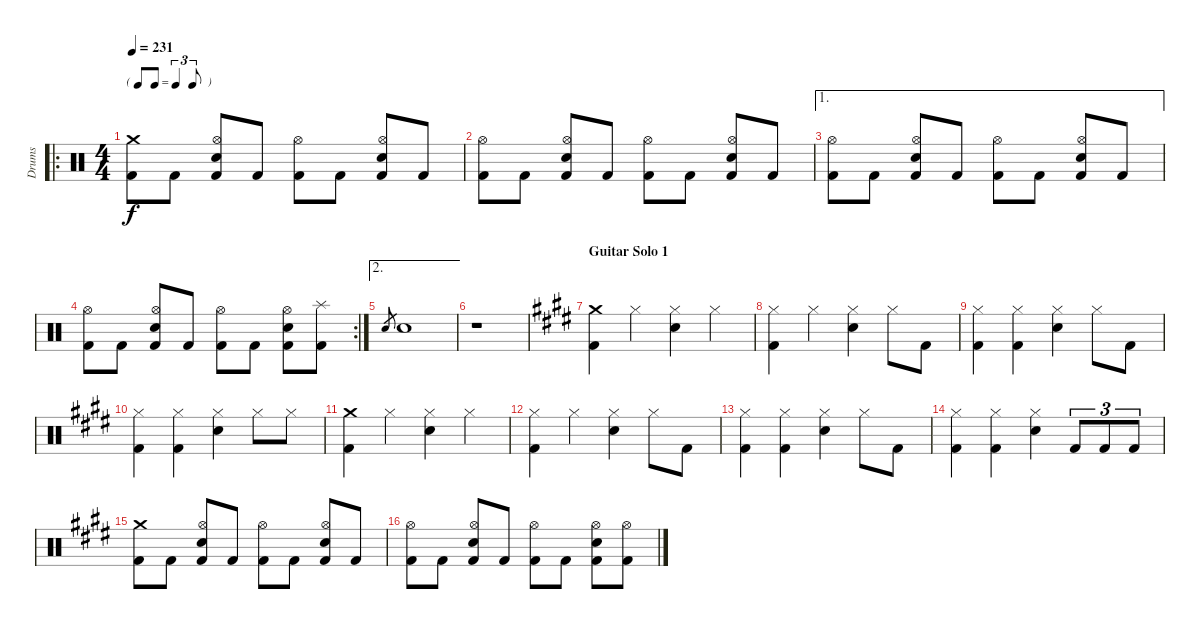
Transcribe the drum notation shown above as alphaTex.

\track ("Drums" "Drums") {instrument percussion}
\staff {score}
\articulation defaults
\ro
\ts (4 4)
\tf triplet8th
\tempo 231
\clef neutral
\ks c
("Crash medium (hit)" "Kick (hit) 2").8{dy f} "Kick (hit) 2".8 ("Hi-Hat (open)" "Electric Snare (hit)" "Kick (hit) 2").8 "Kick (hit) 2".8 ("Hi-Hat (open)" "Kick (hit) 2").8 "Kick (hit) 2".8 ("Hi-Hat (open)" "Electric Snare (hit)" "Kick (hit) 2").8 "Kick (hit) 2".8 |
("Hi-Hat (open)" "Kick (hit) 2").8 "Kick (hit) 2".8 ("Hi-Hat (open)" "Electric Snare (hit)" "Kick (hit) 2").8 "Kick (hit) 2".8 ("Hi-Hat (open)" "Kick (hit) 2").8 "Kick (hit) 2".8 ("Hi-Hat (open)" "Electric Snare (hit)" "Kick (hit) 2").8 "Kick (hit) 2".8 |
\ae 1
("Hi-Hat (open)" "Kick (hit) 2").8 "Kick (hit) 2".8 ("Hi-Hat (open)" "Electric Snare (hit)" "Kick (hit) 2").8 "Kick (hit) 2".8 ("Hi-Hat (open)" "Kick (hit) 2").8 "Kick (hit) 2".8 ("Hi-Hat (open)" "Electric Snare (hit)" "Kick (hit) 2").8 "Kick (hit) 2".8 |
\rc 2
("Hi-Hat (open)" "Kick (hit) 2").8 "Kick (hit) 2".8 ("Hi-Hat (open)" "Electric Snare (hit)" "Kick (hit) 2").8 "Kick (hit) 2".8 ("Hi-Hat (open)" "Kick (hit) 2").8 "Kick (hit) 2".8 ("Hi-Hat (open)" "Electric Snare (hit)" "Kick (hit) 2").8 ("Splash (hit)" "Kick (hit) 2").8 |
\ae 2 "Snare (hit) 2".8{gr} "Snare (hit) 2".1
|
r.1 |
\section ("" "Guitar Solo 1")
\ks c#minor
("Crash medium (hit)" "Kick (hit) 2").4 "Hi-Hat (closed)".4 ("Hi-Hat (closed)" "Electric Snare (hit)").4 "Hi-Hat (closed)".4 |
("Hi-Hat (closed)" "Kick (hit) 2").4 "Hi-Hat (closed)".4 ("Hi-Hat (closed)" "Electric Snare (hit)").4 "Hi-Hat (closed)".8 "Kick (hit) 2".8 |
("Hi-Hat (closed)" "Kick (hit) 2").4 ("Hi-Hat (closed)" "Kick (hit) 2").4 ("Hi-Hat (closed)" "Electric Snare (hit)").4 "Hi-Hat (closed)".8 "Kick (hit) 2".8 |
("Hi-Hat (closed)" "Kick (hit) 2").4 ("Hi-Hat (closed)" "Kick (hit) 2").4 ("Hi-Hat (closed)" "Electric Snare (hit)").4 "Hi-Hat (closed)".8 "Hi-Hat (closed)".8 |
("Crash medium (hit)" "Kick (hit) 2").4 "Hi-Hat (closed)".4 ("Hi-Hat (closed)" "Electric Snare (hit)").4 "Hi-Hat (closed)".4 |
("Hi-Hat (closed)" "Kick (hit) 2").4 "Hi-Hat (closed)".4 ("Hi-Hat (closed)" "Electric Snare (hit)").4 "Hi-Hat (closed)".8 "Kick (hit) 2".8 |
("Hi-Hat (closed)" "Kick (hit) 2").4 ("Hi-Hat (closed)" "Kick (hit) 2").4 ("Hi-Hat (closed)" "Electric Snare (hit)").4 "Hi-Hat (closed)".8 "Kick (hit) 2".8 |
("Hi-Hat (closed)" "Kick (hit) 2").4 ("Hi-Hat (closed)" "Kick (hit) 2").4 ("Hi-Hat (closed)" "Electric Snare (hit)").4 "Kick (hit) 2".8{tu (3 2)} "Kick (hit) 2".8{tu (3 2)} "Kick (hit) 2".8{tu (3 2)} |
("Crash medium (hit)" "Kick (hit) 2").8 "Kick (hit) 2".8 ("Hi-Hat (open)" "Electric Snare (hit)" "Kick (hit) 2").8 "Kick (hit) 2".8 ("Hi-Hat (open)" "Kick (hit) 2").8 "Kick (hit) 2".8 ("Hi-Hat (open)" "Electric Snare (hit)" "Kick (hit) 2").8 "Kick (hit) 2".8 |
("Hi-Hat (open)" "Kick (hit) 2").8 "Kick (hit) 2".8 ("Hi-Hat (open)" "Electric Snare (hit)" "Kick (hit) 2").8 "Kick (hit) 2".8 ("Hi-Hat (open)" "Kick (hit) 2").8 "Kick (hit) 2".8 ("Hi-Hat (open)" "Electric Snare (hit)" "Kick (hit) 2").8 ("Hi-Hat (open)" "Kick (hit) 2").8
